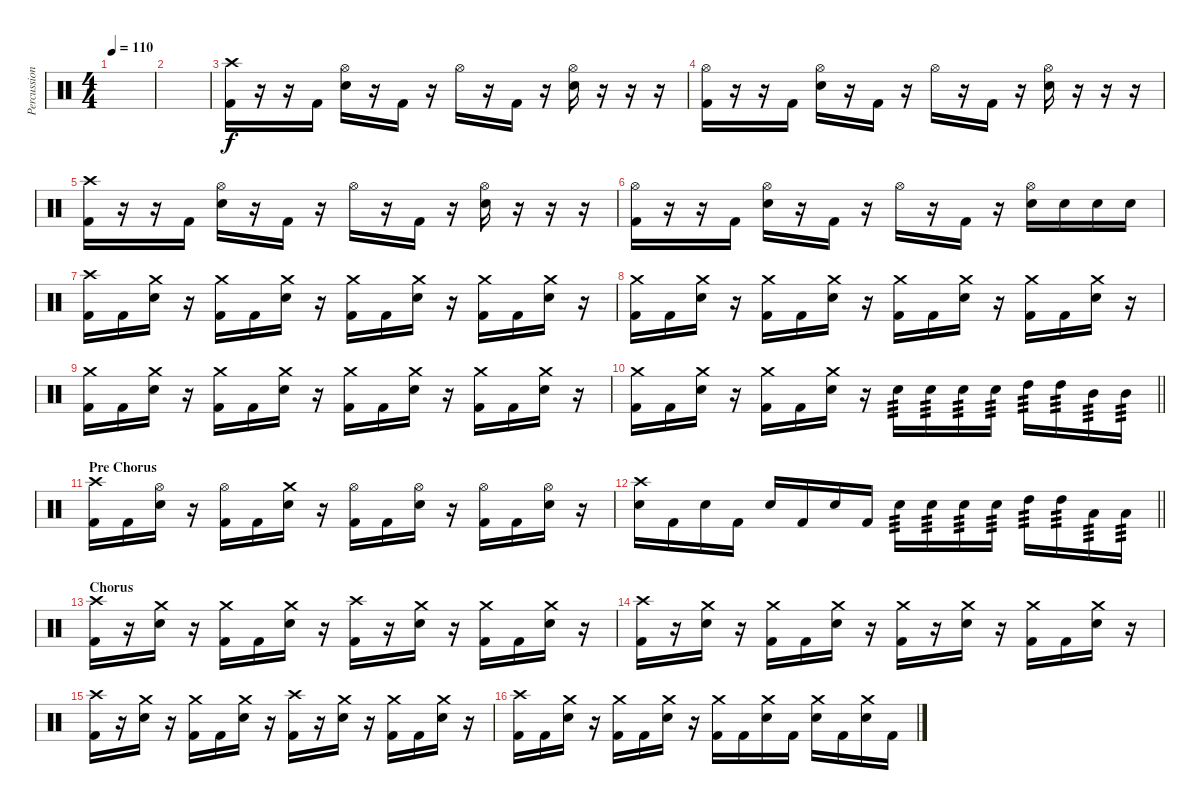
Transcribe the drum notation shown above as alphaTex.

\track ("Percussion" "Percussion") {instrument percussion}
\staff {score}
\articulation defaults
\ts (4 4)
\tempo 110
\clef neutral
\ks c
|
|
("Crash high (hit)" "Kick (hit) 2").16 r.16 r.16 "Kick (hit) 2".16 ("Hi-Hat (open)" "Electric Snare (hit)").16 r.16 "Kick (hit) 2".16 r.16 "Hi-Hat (open)".16 r.16 "Kick (hit) 2".16 r.16 ("Hi-Hat (open)" "Electric Snare (hit)").16 r.16 r.16 r.16 |
("Hi-Hat (open)" "Kick (hit) 2").16 r.16 r.16 "Kick (hit) 2".16 ("Hi-Hat (open)" "Electric Snare (hit)").16 r.16 "Kick (hit) 2".16 r.16 "Hi-Hat (open)".16 r.16 "Kick (hit) 2".16 r.16 ("Hi-Hat (open)" "Electric Snare (hit)").16 r.16 r.16 r.16 |
("Crash high (hit)" "Kick (hit) 2").16 r.16 r.16 "Kick (hit) 2".16 ("Hi-Hat (open)" "Electric Snare (hit)").16 r.16 "Kick (hit) 2".16 r.16 "Hi-Hat (open)".16 r.16 "Kick (hit) 2".16 r.16 ("Hi-Hat (open)" "Electric Snare (hit)").16 r.16 r.16 r.16 |
("Hi-Hat (open)" "Kick (hit) 2").16 r.16 r.16 "Kick (hit) 2".16 ("Hi-Hat (open)" "Electric Snare (hit)").16 r.16 "Kick (hit) 2".16 r.16 "Hi-Hat (open)".16 r.16 "Kick (hit) 2".16 r.16 ("Hi-Hat (open)" "Electric Snare (hit)").16 "Electric Snare (hit)".16 "Electric Snare (hit)".16 "Electric Snare (hit)".16 |
("Crash high (hit)" "Kick (hit) 2").16 "Kick (hit) 2".16 ("Crash medium (hit)" "Electric Snare (hit)").16 r.16 ("Crash medium (hit)" "Kick (hit) 2").16 "Kick (hit) 2".16 ("Crash medium (hit)" "Electric Snare (hit)").16 r.16 ("Crash medium (hit)" "Kick (hit) 2").16 "Kick (hit) 2".16 ("Crash medium (hit)" "Electric Snare (hit)").16 r.16 ("Crash medium (hit)" "Kick (hit) 2").16 "Kick (hit) 2".16 ("Crash medium (hit)" "Electric Snare (hit)").16 r.16 |
("Crash medium (hit)" "Kick (hit) 2").16 "Kick (hit) 2".16 ("Crash medium (hit)" "Electric Snare (hit)").16 r.16 ("Crash medium (hit)" "Kick (hit) 2").16 "Kick (hit) 2".16 ("Crash medium (hit)" "Electric Snare (hit)").16 r.16 ("Crash medium (hit)" "Kick (hit) 2").16 "Kick (hit) 2".16 ("Crash medium (hit)" "Electric Snare (hit)").16 r.16 ("Crash medium (hit)" "Kick (hit) 2").16 "Kick (hit) 2".16 ("Crash medium (hit)" "Electric Snare (hit)").16 r.16 |
("Crash medium (hit)" "Kick (hit) 2").16 "Kick (hit) 2".16 ("Crash medium (hit)" "Electric Snare (hit)").16 r.16 ("Crash medium (hit)" "Kick (hit) 2").16 "Kick (hit) 2".16 ("Crash medium (hit)" "Electric Snare (hit)").16 r.16 ("Crash medium (hit)" "Kick (hit) 2").16 "Kick (hit) 2".16 ("Crash medium (hit)" "Electric Snare (hit)").16 r.16 ("Crash medium (hit)" "Kick (hit) 2").16 "Kick (hit) 2".16 ("Crash medium (hit)" "Electric Snare (hit)").16 r.16 |
\barLineRight lightlight
("Crash medium (hit)" "Kick (hit) 2").16 "Kick (hit) 2".16 ("Crash medium (hit)" "Electric Snare (hit)").16 r.16 ("Crash medium (hit)" "Kick (hit) 2").16 "Kick (hit) 2".16 ("Crash medium (hit)" "Electric Snare (hit)").16 r.16 "Electric Snare (hit)".16{tp 3} "Electric Snare (hit)".16{tp 3} "Electric Snare (hit)".16{tp 3} "Electric Snare (hit)".16{tp 3} "High Tom (hit)".16{tp 3} "High Tom (hit)".16{tp 3} "Mid Tom (hit)".16{tp 3} "Mid Tom (hit)".16{tp 3} |
\section ("" "Pre Chorus")
("Crash high (hit)" "Kick (hit) 2").16 "Kick (hit) 2".16 ("Hi-Hat (open)" "Electric Snare (hit)").16 r.16 ("Hi-Hat (open)" "Kick (hit) 2").16 "Kick (hit) 2".16 ("Crash medium (hit)" "Electric Snare (hit)").16 r.16 ("Hi-Hat (open)" "Kick (hit) 2").16 "Kick (hit) 2".16 ("Hi-Hat (open)" "Electric Snare (hit)").16 r.16 ("Hi-Hat (open)" "Kick (hit) 2").16 "Kick (hit) 2".16 ("Hi-Hat (open)" "Electric Snare (hit)").16 r.16 |
\barLineRight lightlight
("Crash high (hit)" "Electric Snare (hit)").16 "Kick (hit) 2".16 "Electric Snare (hit)".16 "Kick (hit) 2".16 "Electric Snare (hit)".16 "Kick (hit) 2".16 "Electric Snare (hit)".16 "Kick (hit) 2".16 "Electric Snare (hit)".16{tp 3} "Electric Snare (hit)".16{tp 3} "Electric Snare (hit)".16{tp 3} "Electric Snare (hit)".16{tp 3} "High Tom (hit)".16{tp 3} "High Tom (hit)".16{tp 3} "Low Tom (hit)".16{tp 3} "Low Tom (hit)".16{tp 3} |
\section ("" "Chorus")
("Crash high (hit)" "Kick (hit) 2").16 r.16 ("Crash medium (hit)" "Electric Snare (hit)").16 r.16 ("Crash medium (hit)" "Kick (hit) 2").16 "Kick (hit) 2".16 ("Crash medium (hit)" "Electric Snare (hit)").16 r.16 ("Crash high (hit)" "Kick (hit) 2").16 r.16 ("Crash medium (hit)" "Electric Snare (hit)").16 r.16 ("Crash medium (hit)" "Kick (hit) 2").16 "Kick (hit) 2".16 ("Crash medium (hit)" "Electric Snare (hit)").16 r.16 |
("Crash high (hit)" "Kick (hit) 2").16 r.16 ("Crash medium (hit)" "Electric Snare (hit)").16 r.16 ("Crash medium (hit)" "Kick (hit) 2").16 "Kick (hit) 2".16 ("Crash medium (hit)" "Electric Snare (hit)").16 r.16 ("Crash medium (hit)" "Kick (hit) 2").16 r.16 ("Crash medium (hit)" "Electric Snare (hit)").16 r.16 ("Crash medium (hit)" "Kick (hit) 2").16 "Kick (hit) 2".16 ("Crash medium (hit)" "Electric Snare (hit)").16 r.16 |
("Crash high (hit)" "Kick (hit) 2").16 r.16 ("Crash medium (hit)" "Electric Snare (hit)").16 r.16 ("Crash medium (hit)" "Kick (hit) 2").16 "Kick (hit) 2".16 ("Crash medium (hit)" "Electric Snare (hit)").16 r.16 ("Crash high (hit)" "Kick (hit) 2").16 r.16 ("Crash medium (hit)" "Electric Snare (hit)").16 r.16 ("Crash medium (hit)" "Kick (hit) 2").16 "Kick (hit) 2".16 ("Crash medium (hit)" "Electric Snare (hit)").16 r.16 |
("Crash high (hit)" "Kick (hit) 2").16 "Kick (hit) 2".16 ("Crash medium (hit)" "Electric Snare (hit)").16 r.16 ("Crash medium (hit)" "Kick (hit) 2").16 "Kick (hit) 2".16 ("Crash medium (hit)" "Electric Snare (hit)").16 r.16 ("Crash medium (hit)" "Kick (hit) 2").16 "Kick (hit) 2".16 ("Crash medium (hit)" "Electric Snare (hit)").16 "Kick (hit) 2".16 ("Crash medium (hit)" "Electric Snare (hit)").16 "Kick (hit) 2".16 ("Crash medium (hit)" "Electric Snare (hit)").16 "Kick (hit) 2".16
